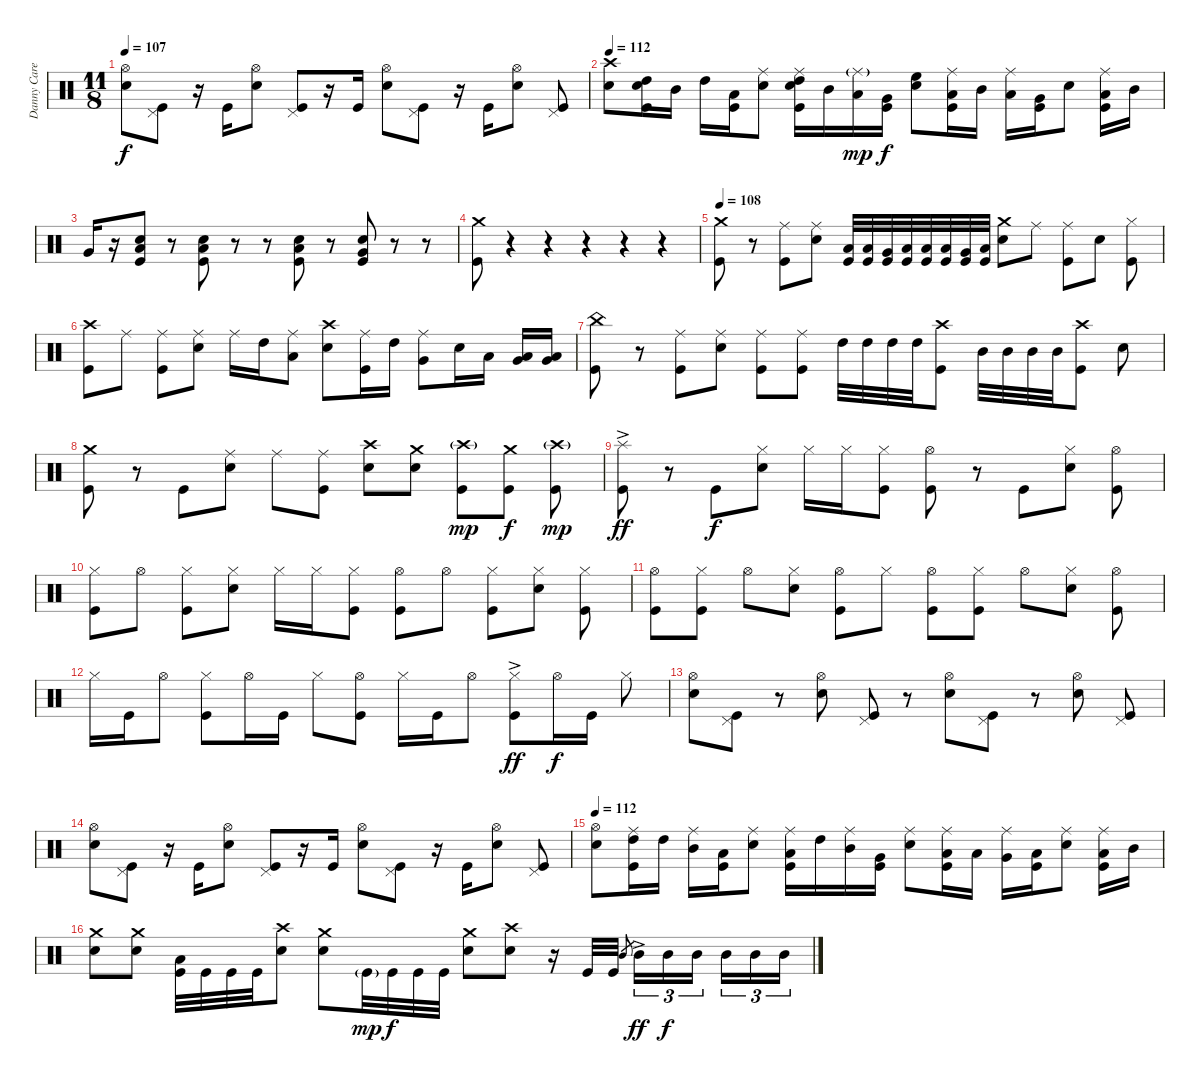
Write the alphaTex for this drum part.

\track ("Danny Carey (drum)" "Danny Care") {instrument percussion}
\staff {score}
\articulation defaults
\ts (11 8)
\tempo 107
\clef neutral
\ks c
("Hi-Hat (open)" "Snare (hit) 2").8{dy f} ("Pedal Hi-Hat (hit)" "Kick (hit)").8 r.16 "Kick (hit)".16 ("Hi-Hat (open)" "Snare (hit) 2").8 ("Pedal Hi-Hat (hit)" "Kick (hit)").8 r.16 "Kick (hit)".16 ("Hi-Hat (open)" "Snare (hit) 2").8 ("Pedal Hi-Hat (hit)" "Kick (hit)").8 r.16 "Kick (hit)".16 ("Hi-Hat (open)" "Snare (hit) 2").8 ("Pedal Hi-Hat (hit)" "Kick (hit)").8 |
\tempo 112
("Crash high (hit)" "Snare (hit) 2").8 ("High Tom (hit)" "Snare (hit) 2" "Kick (hit)").16 "Mid Tom (hit)".16 "High Tom (hit)".16 ("Low Tom (hit)" "Kick (hit)").16 ("Ride (middle)" "Snare (hit) 2").8 ("Ride (middle)" "High Tom (hit)" "Snare (hit) 2" "Kick (hit)").16 "Mid Tom (hit)".16 ("Ride (middle)"{g} "Low Tom (hit)").16{dy mp} ("Very Low Tom (hit)" "Kick (hit)").16{dy f} ("High Floor Tom (hit)" "Snare (hit) 2").8 ("Ride (middle)" "Low Tom (hit)" "Kick (hit)").16 "Mid Tom (hit)".16 ("Ride (middle)" "Low Tom (hit)").16 ("Very Low Tom (hit)" "Kick (hit)").16 "Snare (hit) 2".8 ("Ride (middle)" "Low Tom (hit)" "Kick (hit)").16 "Mid Tom (hit)".16 |
"Very Low Tom (hit)".16 r.16 ("Snare (hit) 2" "Low Floor Tom (hit)" "Kick (hit)").8 r.8 ("Snare (hit) 2" "Low Floor Tom (hit)" "Kick (hit)").8 r.8 r.8 ("Snare (hit) 2" "Low Floor Tom (hit)" "Kick (hit)").8 r.8 ("Snare (hit) 2" "Very Low Tom (hit)" "Kick (hit)").8 r.8 r.8 |
("Crash medium (hit)" "Kick (hit)").8 r.4{volume 0} r.4 r.4 r.4 r.4 |
\tempo 108
("Crash medium (hit)" "Kick (hit)").8{volume 12} r.8 ("Ride (middle)" "Kick (hit)").8 ("Ride (middle)" "Snare (hit) 2").8 ("Low Tom (hit)" "Kick (hit)").32 ("Low Tom (hit)" "Kick (hit)").32 ("Very Low Tom (hit)" "Kick (hit)").32 ("Low Floor Tom (hit)" "Kick (hit)").32 ("Low Tom (hit)" "Kick (hit)").32 ("Low Tom (hit)" "Kick (hit)").32 ("Very Low Tom (hit)" "Kick (hit)").32 ("Low Floor Tom (hit)" "Kick (hit)").32 ("Crash medium (hit)" "Snare (hit) 2").8 "Ride (middle)".8 ("Ride (middle)" "Kick (hit)").8 "Snare (hit) 2".8 ("Hi-Hat (closed)" "Kick (hit)").8 |
("Crash high (hit)" "Kick (hit)").8 "Ride (middle)".8 ("Ride (middle)" "Kick (hit)").8 ("Ride (middle)" "Snare (hit) 2").8 "Ride (middle)".16 "High Tom (hit)".16 ("Ride (middle)" "Low Tom (hit)").8 ("Crash high (hit)" "Snare (hit) 2").8 ("Ride (middle)" "Kick (hit)").16 "High Tom (hit)".16 ("Ride (middle)" "Very Low Tom (hit)").8 "Snare (hit) 2".16 "Low Tom (hit)".16 ("Very Low Tom (hit)" "Low Floor Tom (hit)").16 ("Very Low Tom (hit)" "Low Floor Tom (hit)").16 |
("China (hit)" "Kick (hit)").8 r.8 ("Ride (middle)" "Kick (hit)").8 ("Ride (middle)" "Snare (hit) 2").8 ("Ride (middle)" "Kick (hit)").8 ("Ride (middle)" "Kick (hit)").8 "High Tom (hit)".32 "High Tom (hit)".32 "High Tom (hit)".32 "High Tom (hit)".32 ("Crash high (hit)" "Kick (hit)").8 "Mid Tom (hit)".32 "Mid Tom (hit)".32 "Mid Tom (hit)".32 "Mid Tom (hit)".32 ("Crash high (hit)" "Kick (hit)").8 "Snare (hit) 2".8 |
("Crash medium (hit)" "Kick (hit)").8 r.8 "Kick (hit)".8 ("Ride (middle)" "Snare (hit) 2").8 "Ride (middle)".8 ("Ride (middle)" "Kick (hit)").8 ("Crash high (hit)" "Snare (hit) 2").8 ("Crash medium (hit)" "Snare (hit) 2").8 ("Crash high (hit)"{g} "Kick (hit)").8{dy mp} ("Crash medium (hit)" "Kick (hit)").8{dy f} ("Crash high (hit)"{g} "Kick (hit)").8{dy mp} |
("Splash (hit)"{ac} "Kick (hit)").8{dy ff} r.8 "Kick (hit)".8{dy f} ("Hi-Hat (closed)" "Snare (hit) 2").8 "Hi-Hat (closed)".16 "Hi-Hat (closed)".16 ("Hi-Hat (closed)" "Kick (hit)").8 ("Hi-Hat (open)" "Kick (hit)").8 r.8 "Kick (hit)".8 ("Hi-Hat (closed)" "Snare (hit) 2").8 ("Hi-Hat (open)" "Kick (hit)").8 |
("Hi-Hat (closed)" "Kick (hit)").8 "Hi-Hat (open)".8 ("Hi-Hat (closed)" "Kick (hit)").8 ("Hi-Hat (closed)" "Snare (hit) 2").8 "Hi-Hat (closed)".16 "Hi-Hat (closed)".16 ("Hi-Hat (closed)" "Kick (hit)").8 ("Hi-Hat (open)" "Kick (hit)").8 "Hi-Hat (open)".8 ("Hi-Hat (closed)" "Kick (hit)").8 ("Hi-Hat (closed)" "Snare (hit) 2").8 ("Hi-Hat (closed)" "Kick (hit)").8 |
("Hi-Hat (open)" "Kick (hit)").8 ("Hi-Hat (closed)" "Kick (hit)").8 "Hi-Hat (open)".8 ("Hi-Hat (closed)" "Snare (hit) 2").8 ("Hi-Hat (open)" "Kick (hit)").8 "Hi-Hat (closed)".8 ("Hi-Hat (open)" "Kick (hit)").8 ("Hi-Hat (closed)" "Kick (hit)").8 "Hi-Hat (open)".8 ("Hi-Hat (closed)" "Snare (hit) 2").8 ("Hi-Hat (open)" "Kick (hit)").8 |
"Hi-Hat (closed)".16{volume 10} "Kick (hit)".16 "Hi-Hat (open)".8{volume 12} ("Hi-Hat (closed)" "Kick (hit)").8 "Hi-Hat (open)".16 "Kick (hit)".16 "Hi-Hat (closed)".8 ("Hi-Hat (open)" "Kick (hit)").8 "Hi-Hat (closed)".16{volume 16} "Kick (hit)".16 "Hi-Hat (open)".8 ("Hi-Hat (closed)" "Kick (hit)"{ac}).8{dy ff} "Hi-Hat (open)".16{dy f} "Kick (hit)".16 "Hi-Hat (closed)".8 |
("Hi-Hat (open)" "Snare (hit) 2").8 ("Pedal Hi-Hat (hit)" "Kick (hit)").8 r.8 ("Hi-Hat (open)" "Snare (hit) 2").8 ("Pedal Hi-Hat (hit)" "Kick (hit)").8 r.8 ("Hi-Hat (open)" "Snare (hit) 2").8 ("Pedal Hi-Hat (hit)" "Kick (hit)").8 r.8 ("Hi-Hat (open)" "Snare (hit) 2").8 ("Pedal Hi-Hat (hit)" "Kick (hit)").8 |
("Hi-Hat (open)" "Snare (hit) 2").8 ("Pedal Hi-Hat (hit)" "Kick (hit)").8 r.16 "Kick (hit)".16 ("Hi-Hat (open)" "Snare (hit) 2").8 ("Pedal Hi-Hat (hit)" "Kick (hit)").8 r.16 "Kick (hit)".16 ("Hi-Hat (open)" "Snare (hit) 2").8 ("Pedal Hi-Hat (hit)" "Kick (hit)").8 r.16 "Kick (hit)".16 ("Hi-Hat (open)" "Snare (hit) 2").8 ("Pedal Hi-Hat (hit)" "Kick (hit)").8 |
\tempo 112
("Hi-Hat (open)" "Snare (hit) 2").8 ("Ride (middle)" "High Tom (hit)" "Kick (hit)").16 "High Tom (hit)".16 ("Ride (middle)" "Mid Tom (hit)").16 ("Low Tom (hit)" "Kick (hit)").16 ("Ride (middle)" "Snare (hit) 2").8 ("Ride (middle)" "Low Tom (hit)" "Kick (hit)").16 "High Tom (hit)".16 ("Ride (middle)" "Mid Tom (hit)").16 ("Very Low Tom (hit)" "Kick (hit)").16 ("Ride (middle)" "Snare (hit) 2").8 ("Ride (middle)" "Low Tom (hit)" "Kick (hit)").16 "Low Tom (hit)".16 ("Ride (middle)" "Very Low Tom (hit)").16 ("Low Floor Tom (hit)" "Kick (hit)").16 ("Ride (middle)" "Snare (hit) 2").8 ("Ride (middle)" "Low Tom (hit)" "Kick (hit)").16 "Mid Tom (hit)".16 |
("Crash medium (hit)" "Snare (hit) 2").8 ("Crash medium (hit)" "Snare (hit) 2").8 ("Low Tom (hit)" "Kick (hit)").32 "Kick (hit)".32 "Kick (hit)".32 "Kick (hit)".32 ("Crash high (hit)" "Snare (hit) 2").8 ("Crash medium (hit)" "Snare (hit) 2").8 "Kick (hit)"{g}.32{dy mp} "Kick (hit)".32{dy f} "Kick (hit)".32 "Kick (hit)".32 ("Crash medium (hit)" "Snare (hit) 2").8 ("Crash high (hit)" "Snare (hit) 2").8 r.16 "Kick (hit)".32 "Kick (hit)".32 "Mid Tom (hit)".8{gr} "Mid Tom (hit)"{ac}.16{tu (3 2) dy ff} "Mid Tom (hit)".16{tu (3 2) dy f} "Mid Tom (hit)".16{tu (3 2)} "Mid Tom (hit)".16{tu (3 2)} "Mid Tom (hit)".16{tu (3 2)} "Mid Tom (hit)".16{tu (3 2)}
